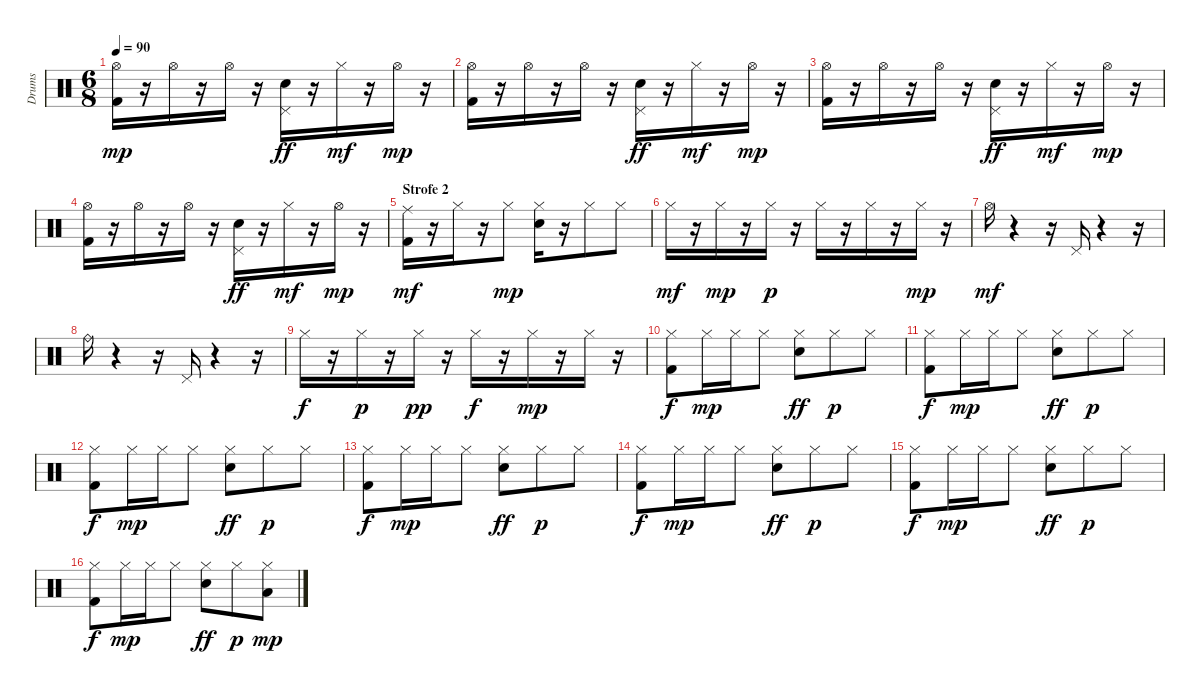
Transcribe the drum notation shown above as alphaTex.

\track ("Drums" "Drums") {instrument percussion}
\staff {score}
\articulation defaults
\ts (6 8)
\tempo 90
\clef neutral
\ks c
("Hi-Hat (open)" "Kick (hit) 2").16{dy mp} r.16 "Hi-Hat (open)".16 r.16 "Hi-Hat (open)".16 r.16 ("Pedal Hi-Hat (hit)" "Snare (hit) 2").16{dy ff} r.16 "Hi-Hat (closed)".16{dy mf} r.16 "Hi-Hat (open)".16{dy mp} r.16 |
("Hi-Hat (open)" "Kick (hit) 2").16 r.16 "Hi-Hat (open)".16 r.16 "Hi-Hat (open)".16 r.16 ("Pedal Hi-Hat (hit)" "Snare (hit) 2").16{dy ff} r.16 "Hi-Hat (closed)".16{dy mf} r.16 "Hi-Hat (open)".16{dy mp} r.16 |
("Hi-Hat (open)" "Kick (hit) 2").16 r.16 "Hi-Hat (open)".16 r.16 "Hi-Hat (open)".16 r.16 ("Pedal Hi-Hat (hit)" "Snare (hit) 2").16{dy ff} r.16 "Hi-Hat (closed)".16{dy mf} r.16 "Hi-Hat (open)".16{dy mp} r.16 |
("Hi-Hat (open)" "Kick (hit) 2").16 r.16 "Hi-Hat (open)".16 r.16 "Hi-Hat (open)".16 r.16 ("Pedal Hi-Hat (hit)" "Snare (hit) 2").16{dy ff} r.16 "Hi-Hat (closed)".16{dy mf} r.16 "Hi-Hat (open)".16{dy mp} r.16 |
\section ("" "Strofe 2")
("Kick (hit) 2" "Ride (middle)").16{dy mf} r.16 "Hi-Hat (closed)".16 r.16 "Hi-Hat (closed)".8{dy mp} ("Hi-Hat (closed)" "Snare (hit) 2").16 r.16 "Hi-Hat (closed)".8 "Hi-Hat (closed)".8 |
"Hi-Hat (closed)".16{dy mf} r.16 "Hi-Hat (closed)".16{dy mp} r.16 "Hi-Hat (closed)".16{dy p} r.16 "Hi-Hat (closed)".16 r.16 "Hi-Hat (closed)".16 r.16 "Hi-Hat (closed)".16{dy mp} r.16 |
"Hi-Hat (open)".16{dy mf} r.4 r.16 "Pedal Hi-Hat (hit)".16 r.4 r.16 |
"Ride (bell)".16 r.4 r.16 "Pedal Hi-Hat (hit)".16 r.4 r.16 |
"Hi-Hat (closed)".16{dy f} r.16 "Hi-Hat (closed)".16{dy p} r.16 "Hi-Hat (closed)".16{dy pp} r.16 "Hi-Hat (closed)".16{dy f} r.16 "Hi-Hat (closed)".16{dy mp} r.16 "Hi-Hat (closed)".16 r.16 |
("Kick (hit) 2" "Hi-Hat (closed)").8{dy f} "Hi-Hat (closed)".16{dy mp} "Hi-Hat (closed)".16 "Hi-Hat (closed)".8 ("Hi-Hat (closed)" "Snare (hit) 2").8{dy ff} "Hi-Hat (closed)".8{dy p} "Hi-Hat (closed)".8 |
("Kick (hit) 2" "Hi-Hat (closed)").8{dy f} "Hi-Hat (closed)".16{dy mp} "Hi-Hat (closed)".16 "Hi-Hat (closed)".8 ("Hi-Hat (closed)" "Snare (hit) 2").8{dy ff} "Hi-Hat (closed)".8{dy p} "Hi-Hat (closed)".8 |
("Kick (hit) 2" "Hi-Hat (closed)").8{dy f} "Hi-Hat (closed)".16{dy mp} "Hi-Hat (closed)".16 "Hi-Hat (closed)".8 ("Hi-Hat (closed)" "Snare (hit) 2").8{dy ff} "Hi-Hat (closed)".8{dy p} "Hi-Hat (closed)".8 |
("Kick (hit) 2" "Hi-Hat (closed)").8{dy f} "Hi-Hat (closed)".16{dy mp} "Hi-Hat (closed)".16 "Hi-Hat (closed)".8 ("Hi-Hat (closed)" "Snare (hit) 2").8{dy ff} "Hi-Hat (closed)".8{dy p} "Hi-Hat (closed)".8 |
("Kick (hit) 2" "Hi-Hat (closed)").8{dy f} "Hi-Hat (closed)".16{dy mp} "Hi-Hat (closed)".16 "Hi-Hat (closed)".8 ("Hi-Hat (closed)" "Snare (hit) 2").8{dy ff} "Hi-Hat (closed)".8{dy p} "Hi-Hat (closed)".8 |
("Kick (hit) 2" "Hi-Hat (closed)").8{dy f} "Hi-Hat (closed)".16{dy mp} "Hi-Hat (closed)".16 "Hi-Hat (closed)".8 ("Hi-Hat (closed)" "Snare (hit) 2").8{dy ff} "Hi-Hat (closed)".8{dy p} "Hi-Hat (closed)".8 |
("Kick (hit) 2" "Hi-Hat (closed)").8{dy f} "Hi-Hat (closed)".16{dy mp} "Hi-Hat (closed)".16 "Hi-Hat (closed)".8 ("Hi-Hat (closed)" "Snare (hit) 2").8{dy ff} "Hi-Hat (closed)".8{dy p} ("Hi-Hat (closed)" "Low Tom (hit)").8{dy mp}
